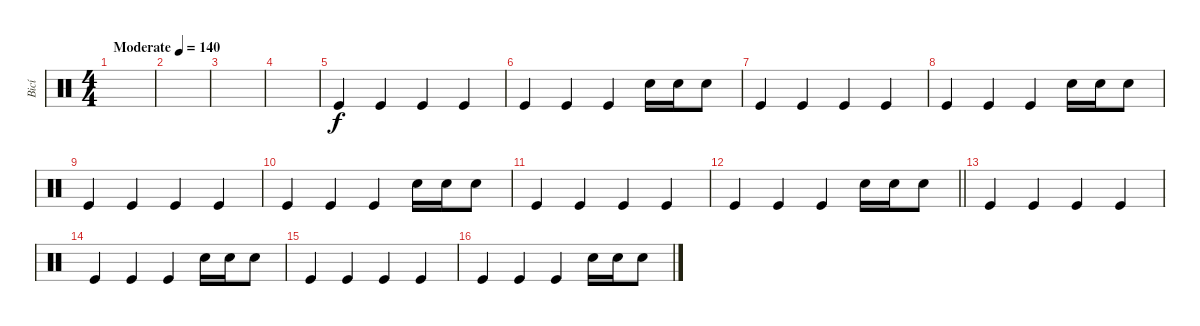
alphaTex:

\track ("Bicí" "Bicí") {instrument percussion}
\staff {score}
\articulation defaults
\ts (4 4)
\tempo (140 "Moderate")
\clef neutral
\ks c
|
|
|
|
"Kick (hit)".4 "Kick (hit)".4 "Kick (hit)".4 "Kick (hit)".4 |
"Kick (hit)".4 "Kick (hit)".4 "Kick (hit)".4 "Electric Snare (hit)".16 "Electric Snare (hit)".16 "Electric Snare (hit)".8 |
"Kick (hit)".4 "Kick (hit)".4 "Kick (hit)".4 "Kick (hit)".4 |
"Kick (hit)".4 "Kick (hit)".4 "Kick (hit)".4 "Electric Snare (hit)".16 "Electric Snare (hit)".16 "Electric Snare (hit)".8 |
"Kick (hit)".4 "Kick (hit)".4 "Kick (hit)".4 "Kick (hit)".4 |
"Kick (hit)".4 "Kick (hit)".4 "Kick (hit)".4 "Electric Snare (hit)".16 "Electric Snare (hit)".16 "Electric Snare (hit)".8 |
"Kick (hit)".4 "Kick (hit)".4 "Kick (hit)".4 "Kick (hit)".4 |
\barLineRight lightlight "Kick (hit)".4 "Kick (hit)".4 "Kick (hit)".4 "Electric Snare (hit)".16 "Electric Snare (hit)".16 "Electric Snare (hit)".8
|
\section ("" "")
"Kick (hit)".4 "Kick (hit)".4 "Kick (hit)".4 "Kick (hit)".4 |
"Kick (hit)".4 "Kick (hit)".4 "Kick (hit)".4 "Electric Snare (hit)".16 "Electric Snare (hit)".16 "Electric Snare (hit)".8 |
"Kick (hit)".4 "Kick (hit)".4 "Kick (hit)".4 "Kick (hit)".4 |
"Kick (hit)".4 "Kick (hit)".4 "Kick (hit)".4 "Electric Snare (hit)".16 "Electric Snare (hit)".16 "Electric Snare (hit)".8
